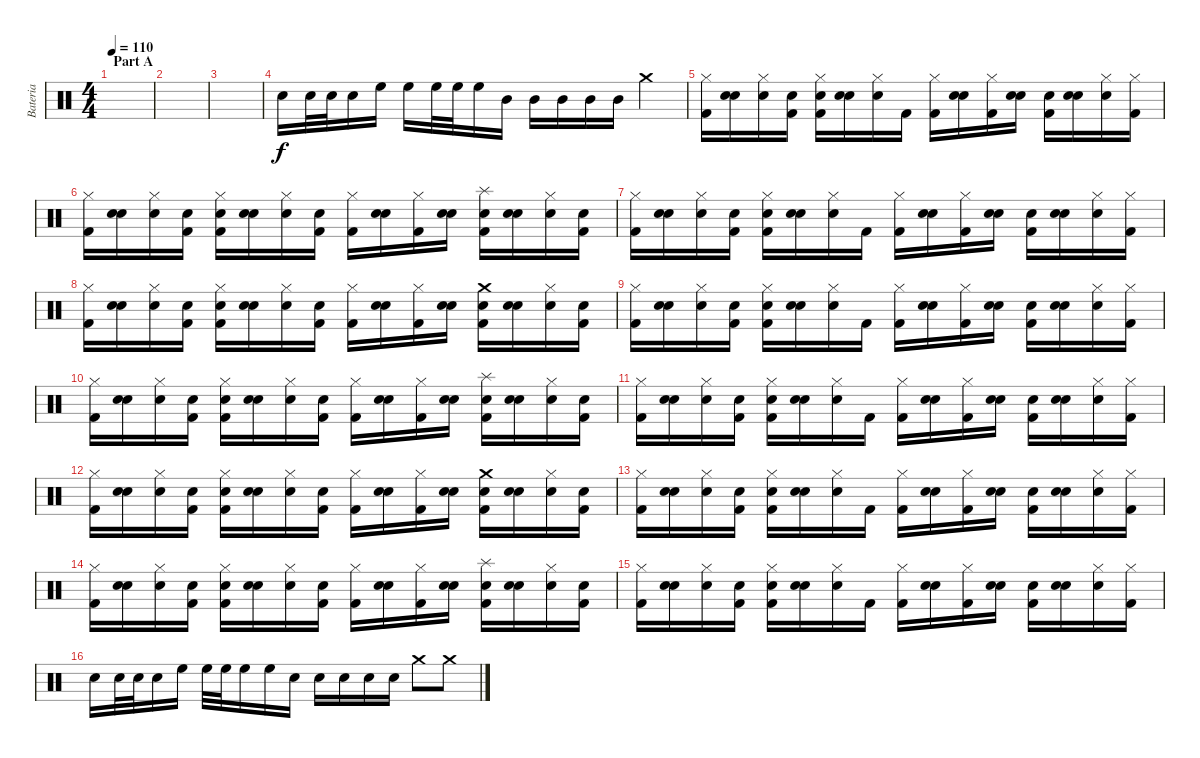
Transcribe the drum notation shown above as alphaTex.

\track ("Bateria" "Bateria") {instrument percussion}
\staff {score}
\articulation defaults
\ts (4 4)
\section ("" "Part A")
\tempo 110
\clef neutral
\ks c
|
|
|
"Electric Snare (hit)".16 "Electric Snare (hit)".32 "Electric Snare (hit)".32 "Electric Snare (hit)".16 "High Floor Tom (hit)".16 "High Floor Tom (hit)".16 "High Floor Tom (hit)".32 "High Floor Tom (hit)".32 "High Floor Tom (hit)".16 "Mid Tom (hit)".16 "Mid Tom (hit)".16 "Mid Tom (hit)".16 "Mid Tom (hit)".16 "Mid Tom (hit)".16 "Crash medium (hit)".4 |
("Kick (hit) 2" "Hi-Hat (closed)").16 ("Snare (hit)" "Snare (hit)").16 ("Snare (hit)" "Hi-Hat (closed)").16 ("Kick (hit) 2" "Snare (hit)").16 ("Kick (hit) 2" "Hi-Hat (closed)" "Electric Snare (hit)").16 ("Snare (hit)" "Snare (hit)").16 ("Snare (hit)" "Hi-Hat (closed)").16 "Kick (hit) 2".16 ("Kick (hit) 2" "Hi-Hat (closed)").16 ("Snare (hit)" "Snare (hit)").16 ("Kick (hit) 2" "Hi-Hat (closed)").16 ("Snare (hit)" "Snare (hit)").16 ("Kick (hit) 2" "Electric Snare (hit)").16 ("Snare (hit)" "Snare (hit)").16 ("Snare (hit)" "Hi-Hat (closed)").16 ("Kick (hit) 2" "Hi-Hat (closed)").16 |
("Kick (hit) 2" "Hi-Hat (closed)").16 ("Snare (hit)" "Snare (hit)").16 ("Snare (hit)" "Hi-Hat (closed)").16 ("Kick (hit) 2" "Snare (hit)").16 ("Kick (hit) 2" "Hi-Hat (closed)" "Electric Snare (hit)").16 ("Snare (hit)" "Snare (hit)").16 ("Snare (hit)" "Hi-Hat (closed)").16 ("Kick (hit) 2" "Snare (hit)").16 ("Kick (hit) 2" "Hi-Hat (closed)").16 ("Snare (hit)" "Snare (hit)").16 ("Kick (hit) 2" "Hi-Hat (closed)").16 ("Snare (hit)" "Snare (hit)").16 ("Kick (hit) 2" "Splash (hit)" "Electric Snare (hit)").16 ("Snare (hit)" "Snare (hit)").16 ("Snare (hit)" "Hi-Hat (closed)").16 ("Kick (hit) 2" "Snare (hit)").16 |
("Kick (hit) 2" "Hi-Hat (closed)").16 ("Snare (hit)" "Snare (hit)").16 ("Snare (hit)" "Hi-Hat (closed)").16 ("Kick (hit) 2" "Snare (hit)").16 ("Kick (hit) 2" "Hi-Hat (closed)" "Electric Snare (hit)").16 ("Snare (hit)" "Snare (hit)").16 ("Snare (hit)" "Hi-Hat (closed)").16 "Kick (hit) 2".16 ("Kick (hit) 2" "Hi-Hat (closed)").16 ("Snare (hit)" "Snare (hit)").16 ("Kick (hit) 2" "Hi-Hat (closed)").16 ("Snare (hit)" "Snare (hit)").16 ("Kick (hit) 2" "Electric Snare (hit)").16 ("Snare (hit)" "Snare (hit)").16 ("Snare (hit)" "Hi-Hat (closed)").16 ("Kick (hit) 2" "Hi-Hat (closed)").16 |
("Kick (hit) 2" "Hi-Hat (closed)").16 ("Snare (hit)" "Snare (hit)").16 ("Snare (hit)" "Hi-Hat (closed)").16 ("Kick (hit) 2" "Snare (hit)").16 ("Kick (hit) 2" "Hi-Hat (closed)" "Electric Snare (hit)").16 ("Snare (hit)" "Snare (hit)").16 ("Snare (hit)" "Hi-Hat (closed)").16 ("Kick (hit) 2" "Snare (hit)").16 ("Kick (hit) 2" "Hi-Hat (closed)").16 ("Snare (hit)" "Snare (hit)").16 ("Kick (hit) 2" "Hi-Hat (closed)").16 ("Snare (hit)" "Snare (hit)").16 ("Kick (hit) 2" "Crash medium (hit)" "Electric Snare (hit)").16 ("Snare (hit)" "Snare (hit)").16 ("Snare (hit)" "Hi-Hat (closed)").16 ("Kick (hit) 2" "Snare (hit)").16 |
("Kick (hit) 2" "Hi-Hat (closed)").16 ("Snare (hit)" "Snare (hit)").16 ("Snare (hit)" "Hi-Hat (closed)").16 ("Kick (hit) 2" "Snare (hit)").16 ("Kick (hit) 2" "Hi-Hat (closed)" "Electric Snare (hit)").16 ("Snare (hit)" "Snare (hit)").16 ("Snare (hit)" "Hi-Hat (closed)").16 "Kick (hit) 2".16 ("Kick (hit) 2" "Hi-Hat (closed)").16 ("Snare (hit)" "Snare (hit)").16 ("Kick (hit) 2" "Hi-Hat (closed)").16 ("Snare (hit)" "Snare (hit)").16 ("Kick (hit) 2" "Electric Snare (hit)").16 ("Snare (hit)" "Snare (hit)").16 ("Snare (hit)" "Hi-Hat (closed)").16 ("Kick (hit) 2" "Hi-Hat (closed)").16 |
("Kick (hit) 2" "Hi-Hat (closed)").16 ("Snare (hit)" "Snare (hit)").16 ("Snare (hit)" "Hi-Hat (closed)").16 ("Kick (hit) 2" "Snare (hit)").16 ("Kick (hit) 2" "Hi-Hat (closed)" "Electric Snare (hit)").16 ("Snare (hit)" "Snare (hit)").16 ("Snare (hit)" "Hi-Hat (closed)").16 ("Kick (hit) 2" "Snare (hit)").16 ("Kick (hit) 2" "Hi-Hat (closed)").16 ("Snare (hit)" "Snare (hit)").16 ("Kick (hit) 2" "Hi-Hat (closed)").16 ("Snare (hit)" "Snare (hit)").16 ("Kick (hit) 2" "Splash (hit)" "Electric Snare (hit)").16 ("Snare (hit)" "Snare (hit)").16 ("Snare (hit)" "Hi-Hat (closed)").16 ("Kick (hit) 2" "Snare (hit)").16 |
("Kick (hit) 2" "Hi-Hat (closed)").16 ("Snare (hit)" "Snare (hit)").16 ("Snare (hit)" "Hi-Hat (closed)").16 ("Kick (hit) 2" "Snare (hit)").16 ("Kick (hit) 2" "Hi-Hat (closed)" "Electric Snare (hit)").16 ("Snare (hit)" "Snare (hit)").16 ("Snare (hit)" "Hi-Hat (closed)").16 "Kick (hit) 2".16 ("Kick (hit) 2" "Hi-Hat (closed)").16 ("Snare (hit)" "Snare (hit)").16 ("Kick (hit) 2" "Hi-Hat (closed)").16 ("Snare (hit)" "Snare (hit)").16 ("Kick (hit) 2" "Electric Snare (hit)").16 ("Snare (hit)" "Snare (hit)").16 ("Snare (hit)" "Hi-Hat (closed)").16 ("Kick (hit) 2" "Hi-Hat (closed)").16 |
("Kick (hit) 2" "Hi-Hat (closed)").16 ("Snare (hit)" "Snare (hit)").16 ("Snare (hit)" "Hi-Hat (closed)").16 ("Kick (hit) 2" "Snare (hit)").16 ("Kick (hit) 2" "Hi-Hat (closed)" "Electric Snare (hit)").16 ("Snare (hit)" "Snare (hit)").16 ("Snare (hit)" "Hi-Hat (closed)").16 ("Kick (hit) 2" "Snare (hit)").16 ("Kick (hit) 2" "Hi-Hat (closed)").16 ("Snare (hit)" "Snare (hit)").16 ("Kick (hit) 2" "Hi-Hat (closed)").16 ("Snare (hit)" "Snare (hit)").16 ("Kick (hit) 2" "Crash medium (hit)" "Electric Snare (hit)").16 ("Snare (hit)" "Snare (hit)").16 ("Snare (hit)" "Hi-Hat (closed)").16 ("Kick (hit) 2" "Snare (hit)").16 |
("Kick (hit) 2" "Hi-Hat (closed)").16 ("Snare (hit)" "Snare (hit)").16 ("Snare (hit)" "Hi-Hat (closed)").16 ("Kick (hit) 2" "Snare (hit)").16 ("Kick (hit) 2" "Hi-Hat (closed)" "Electric Snare (hit)").16 ("Snare (hit)" "Snare (hit)").16 ("Snare (hit)" "Hi-Hat (closed)").16 "Kick (hit) 2".16 ("Kick (hit) 2" "Hi-Hat (closed)").16 ("Snare (hit)" "Snare (hit)").16 ("Kick (hit) 2" "Hi-Hat (closed)").16 ("Snare (hit)" "Snare (hit)").16 ("Kick (hit) 2" "Electric Snare (hit)").16 ("Snare (hit)" "Snare (hit)").16 ("Snare (hit)" "Hi-Hat (closed)").16 ("Kick (hit) 2" "Hi-Hat (closed)").16 |
("Kick (hit) 2" "Hi-Hat (closed)").16 ("Snare (hit)" "Snare (hit)").16 ("Snare (hit)" "Hi-Hat (closed)").16 ("Kick (hit) 2" "Snare (hit)").16 ("Kick (hit) 2" "Hi-Hat (closed)" "Electric Snare (hit)").16 ("Snare (hit)" "Snare (hit)").16 ("Snare (hit)" "Hi-Hat (closed)").16 ("Kick (hit) 2" "Snare (hit)").16 ("Kick (hit) 2" "Hi-Hat (closed)").16 ("Snare (hit)" "Snare (hit)").16 ("Kick (hit) 2" "Hi-Hat (closed)").16 ("Snare (hit)" "Snare (hit)").16 ("Kick (hit) 2" "Splash (hit)" "Electric Snare (hit)").16 ("Snare (hit)" "Snare (hit)").16 ("Snare (hit)" "Hi-Hat (closed)").16 ("Kick (hit) 2" "Snare (hit)").16 |
("Kick (hit) 2" "Hi-Hat (closed)").16 ("Snare (hit)" "Snare (hit)").16 ("Snare (hit)" "Hi-Hat (closed)").16 ("Kick (hit) 2" "Snare (hit)").16 ("Kick (hit) 2" "Hi-Hat (closed)" "Electric Snare (hit)").16 ("Snare (hit)" "Snare (hit)").16 ("Snare (hit)" "Hi-Hat (closed)").16 "Kick (hit) 2".16 ("Kick (hit) 2" "Hi-Hat (closed)").16 ("Snare (hit)" "Snare (hit)").16 ("Kick (hit) 2" "Hi-Hat (closed)").16 ("Snare (hit)" "Snare (hit)").16 ("Kick (hit) 2" "Electric Snare (hit)").16 ("Snare (hit)" "Snare (hit)").16 ("Snare (hit)" "Hi-Hat (closed)").16 ("Kick (hit) 2" "Hi-Hat (closed)").16 |
"Electric Snare (hit)".16 "Electric Snare (hit)".32 "Electric Snare (hit)".32 "Electric Snare (hit)".16 "High Floor Tom (hit)".16 "High Floor Tom (hit)".32 "High Floor Tom (hit)".32 "High Floor Tom (hit)".16 "High Floor Tom (hit)".16 "Electric Snare (hit)".16 "Electric Snare (hit)".16 "Electric Snare (hit)".16 "Electric Snare (hit)".16 "Electric Snare (hit)".16 "Crash medium (hit)".8 "Crash medium (hit)".8
